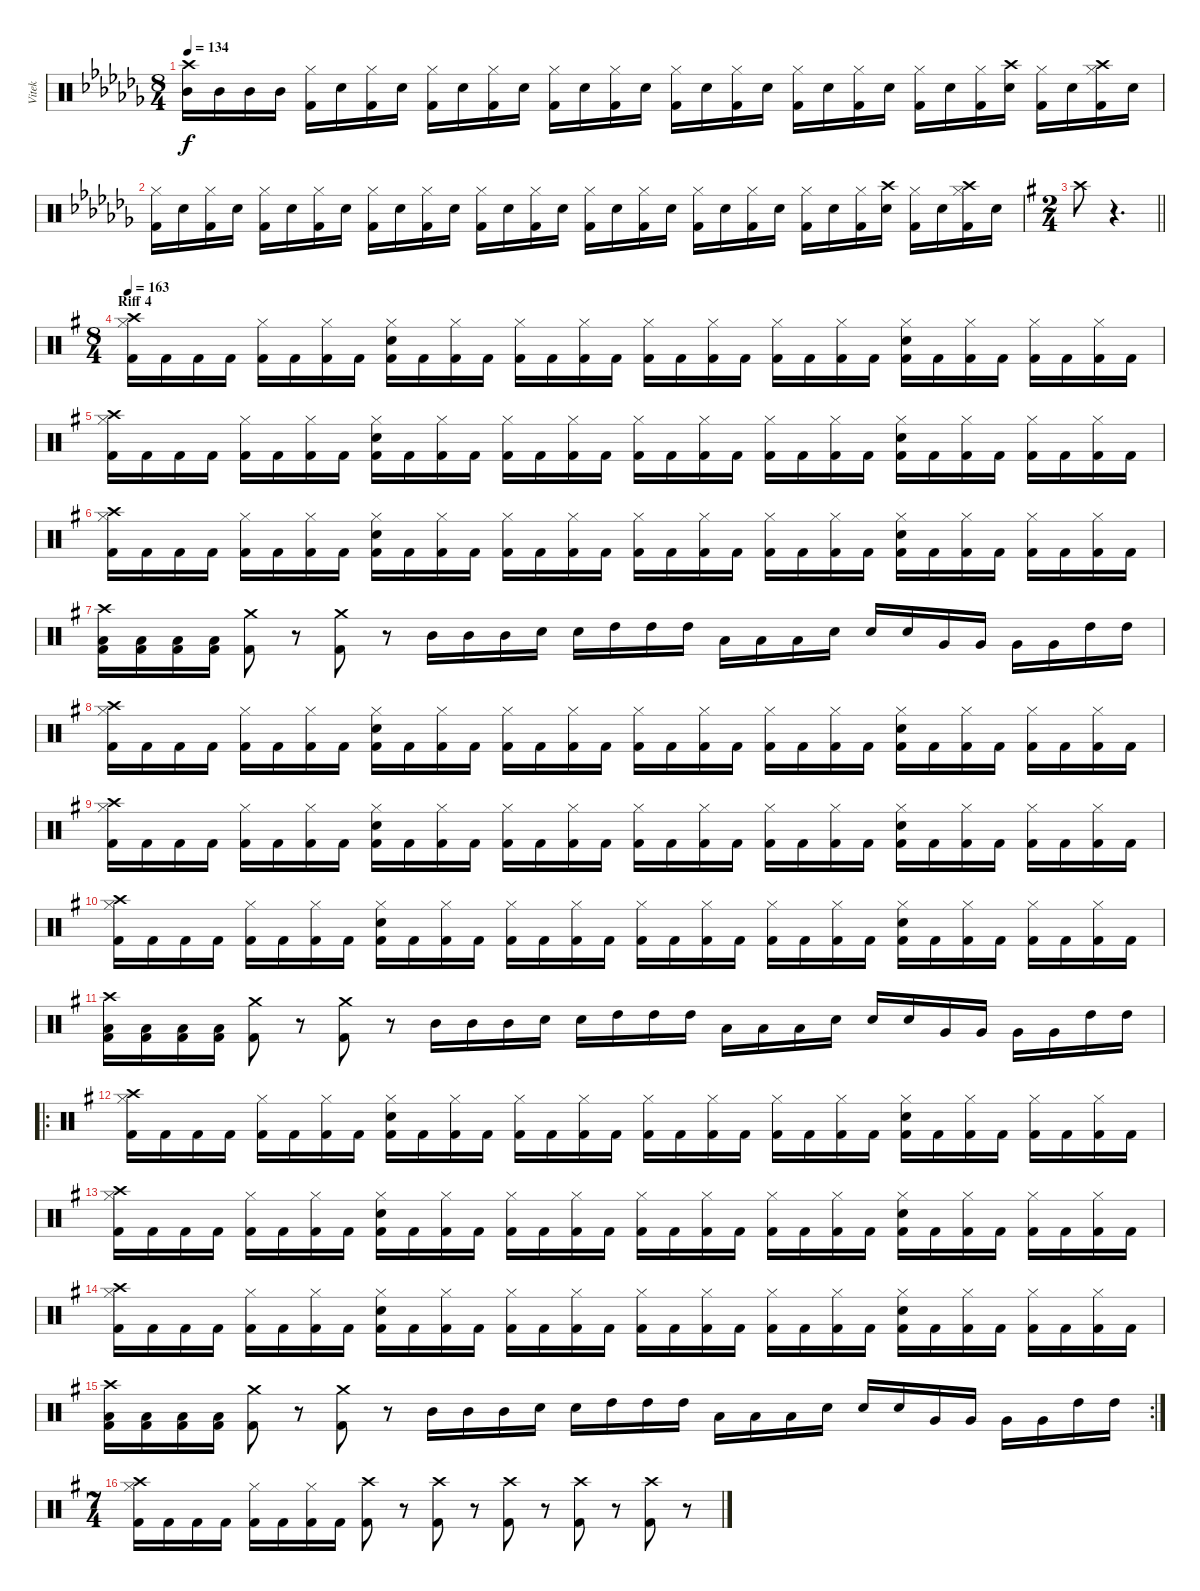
\track ("Vitek" "Vitek") {instrument percussion}
\staff
\articulation defaults
\ts (8 4)
\tempo 134
\clef neutral
\ks cb
("Mid Tom (hit)" "Crash high (hit)").16{dy f} "Mid Tom (hit)".16 "Mid Tom (hit)".16 "Mid Tom (hit)".16 ("Hi-Hat (closed)" "Kick (hit) 2").16 "Electric Snare (hit)".16 ("Hi-Hat (closed)" "Kick (hit) 2").16 "Electric Snare (hit)".16 ("Hi-Hat (closed)" "Kick (hit) 2").16 "Electric Snare (hit)".16 ("Hi-Hat (closed)" "Kick (hit) 2").16 "Electric Snare (hit)".16 ("Hi-Hat (closed)" "Kick (hit) 2").16 "Electric Snare (hit)".16 ("Hi-Hat (closed)" "Kick (hit) 2").16 "Electric Snare (hit)".16 ("Hi-Hat (closed)" "Kick (hit) 2").16 "Electric Snare (hit)".16 ("Hi-Hat (closed)" "Kick (hit) 2").16 "Electric Snare (hit)".16 ("Hi-Hat (closed)" "Kick (hit) 2").16 "Electric Snare (hit)".16 ("Hi-Hat (closed)" "Kick (hit) 2").16 "Electric Snare (hit)".16 ("Hi-Hat (closed)" "Kick (hit) 2").16 "Electric Snare (hit)".16 ("Hi-Hat (closed)" "Kick (hit) 2").16 ("Crash high (hit)" "Electric Snare (hit)").16 ("Hi-Hat (closed)" "Kick (hit) 2").16 "Electric Snare (hit)".16 ("Crash high (hit)" "Hi-Hat (closed)" "Kick (hit) 2").16 "Electric Snare (hit)".16 |
("Hi-Hat (closed)" "Kick (hit) 2").16 "Electric Snare (hit)".16 ("Hi-Hat (closed)" "Kick (hit) 2").16 "Electric Snare (hit)".16 ("Hi-Hat (closed)" "Kick (hit) 2").16 "Electric Snare (hit)".16 ("Hi-Hat (closed)" "Kick (hit) 2").16 "Electric Snare (hit)".16 ("Hi-Hat (closed)" "Kick (hit) 2").16 "Electric Snare (hit)".16 ("Hi-Hat (closed)" "Kick (hit) 2").16 "Electric Snare (hit)".16 ("Hi-Hat (closed)" "Kick (hit) 2").16 "Electric Snare (hit)".16 ("Hi-Hat (closed)" "Kick (hit) 2").16 "Electric Snare (hit)".16 ("Hi-Hat (closed)" "Kick (hit) 2").16 "Electric Snare (hit)".16 ("Hi-Hat (closed)" "Kick (hit) 2").16 "Electric Snare (hit)".16 ("Hi-Hat (closed)" "Kick (hit) 2").16 "Electric Snare (hit)".16 ("Hi-Hat (closed)" "Kick (hit) 2").16 "Electric Snare (hit)".16 ("Hi-Hat (closed)" "Kick (hit) 2").16 "Electric Snare (hit)".16 ("Hi-Hat (closed)" "Kick (hit) 2").16 ("Crash high (hit)" "Electric Snare (hit)").16 ("Hi-Hat (closed)" "Kick (hit) 2").16 "Electric Snare (hit)".16 ("Crash high (hit)" "Hi-Hat (closed)" "Kick (hit) 2").16 "Electric Snare (hit)".16 |
\ts (2 4)
\barLineRight lightlight
\ks g "Crash high (hit)".8
r.4{d} |
\ts (8 4)
\section ("" "Riff 4")
\tempo 163
("Crash high (hit)" "Hi-Hat (closed)" "Kick (hit) 2").16 "Kick (hit) 2".16 "Kick (hit) 2".16 "Kick (hit) 2".16 ("Hi-Hat (closed)" "Kick (hit) 2").16 "Kick (hit) 2".16 ("Hi-Hat (closed)" "Kick (hit) 2").16 "Kick (hit) 2".16 ("Electric Snare (hit)" "Hi-Hat (closed)" "Kick (hit) 2").16 "Kick (hit) 2".16 ("Hi-Hat (closed)" "Kick (hit) 2").16 "Kick (hit) 2".16 ("Hi-Hat (closed)" "Kick (hit) 2").16 "Kick (hit) 2".16 ("Hi-Hat (closed)" "Kick (hit) 2").16 "Kick (hit) 2".16 ("Hi-Hat (closed)" "Kick (hit) 2").16 "Kick (hit) 2".16 ("Hi-Hat (closed)" "Kick (hit) 2").16 "Kick (hit) 2".16 ("Hi-Hat (closed)" "Kick (hit) 2").16 "Kick (hit) 2".16 ("Hi-Hat (closed)" "Kick (hit) 2").16 "Kick (hit) 2".16 ("Electric Snare (hit)" "Hi-Hat (closed)" "Kick (hit) 2").16 "Kick (hit) 2".16 ("Hi-Hat (closed)" "Kick (hit) 2").16 "Kick (hit) 2".16 ("Hi-Hat (closed)" "Kick (hit) 2").16 "Kick (hit) 2".16 ("Hi-Hat (closed)" "Kick (hit) 2").16 "Kick (hit) 2".16 |
("Crash high (hit)" "Hi-Hat (closed)" "Kick (hit) 2").16 "Kick (hit) 2".16 "Kick (hit) 2".16 "Kick (hit) 2".16 ("Hi-Hat (closed)" "Kick (hit) 2").16 "Kick (hit) 2".16 ("Hi-Hat (closed)" "Kick (hit) 2").16 "Kick (hit) 2".16 ("Electric Snare (hit)" "Hi-Hat (closed)" "Kick (hit) 2").16 "Kick (hit) 2".16 ("Hi-Hat (closed)" "Kick (hit) 2").16 "Kick (hit) 2".16 ("Hi-Hat (closed)" "Kick (hit) 2").16 "Kick (hit) 2".16 ("Hi-Hat (closed)" "Kick (hit) 2").16 "Kick (hit) 2".16 ("Hi-Hat (closed)" "Kick (hit) 2").16 "Kick (hit) 2".16 ("Hi-Hat (closed)" "Kick (hit) 2").16 "Kick (hit) 2".16 ("Hi-Hat (closed)" "Kick (hit) 2").16 "Kick (hit) 2".16 ("Hi-Hat (closed)" "Kick (hit) 2").16 "Kick (hit) 2".16 ("Electric Snare (hit)" "Hi-Hat (closed)" "Kick (hit) 2").16 "Kick (hit) 2".16 ("Hi-Hat (closed)" "Kick (hit) 2").16 "Kick (hit) 2".16 ("Hi-Hat (closed)" "Kick (hit) 2").16 "Kick (hit) 2".16 ("Hi-Hat (closed)" "Kick (hit) 2").16 "Kick (hit) 2".16 |
("Crash high (hit)" "Hi-Hat (closed)" "Kick (hit) 2").16 "Kick (hit) 2".16 "Kick (hit) 2".16 "Kick (hit) 2".16 ("Hi-Hat (closed)" "Kick (hit) 2").16 "Kick (hit) 2".16 ("Hi-Hat (closed)" "Kick (hit) 2").16 "Kick (hit) 2".16 ("Electric Snare (hit)" "Hi-Hat (closed)" "Kick (hit) 2").16 "Kick (hit) 2".16 ("Hi-Hat (closed)" "Kick (hit) 2").16 "Kick (hit) 2".16 ("Hi-Hat (closed)" "Kick (hit) 2").16 "Kick (hit) 2".16 ("Hi-Hat (closed)" "Kick (hit) 2").16 "Kick (hit) 2".16 ("Hi-Hat (closed)" "Kick (hit) 2").16 "Kick (hit) 2".16 ("Hi-Hat (closed)" "Kick (hit) 2").16 "Kick (hit) 2".16 ("Hi-Hat (closed)" "Kick (hit) 2").16 "Kick (hit) 2".16 ("Hi-Hat (closed)" "Kick (hit) 2").16 "Kick (hit) 2".16 ("Electric Snare (hit)" "Hi-Hat (closed)" "Kick (hit) 2").16 "Kick (hit) 2".16 ("Hi-Hat (closed)" "Kick (hit) 2").16 "Kick (hit) 2".16 ("Hi-Hat (closed)" "Kick (hit) 2").16 "Kick (hit) 2".16 ("Hi-Hat (closed)" "Kick (hit) 2").16 "Kick (hit) 2".16 |
("Crash high (hit)" "Low Tom (hit)" "Kick (hit) 2").16 ("Low Tom (hit)" "Kick (hit) 2").16 ("Low Tom (hit)" "Kick (hit) 2").16 ("Low Tom (hit)" "Kick (hit) 2").16 ("Crash medium (hit)" "Kick (hit) 2").8 r.8 ("Crash medium (hit)" "Kick (hit) 2").8 r.8 "Mid Tom (hit)".16 "Mid Tom (hit)".16 "Mid Tom (hit)".16 "Electric Snare (hit)".16 "Electric Snare (hit)".16 "High Tom (hit)".16 "High Tom (hit)".16 "High Tom (hit)".16 "Low Tom (hit)".16 "Low Tom (hit)".16 "Low Tom (hit)".16 "Electric Snare (hit)".16 "Electric Snare (hit)".16 "Electric Snare (hit)".16 "Very Low Tom (hit)".16 "Very Low Tom (hit)".16 "Very Low Tom (hit)".16 "Very Low Tom (hit)".16 "High Tom (hit)".16 "High Tom (hit)".16 |
("Crash high (hit)" "Hi-Hat (closed)" "Kick (hit) 2").16 "Kick (hit) 2".16 "Kick (hit) 2".16 "Kick (hit) 2".16 ("Hi-Hat (closed)" "Kick (hit) 2").16 "Kick (hit) 2".16 ("Hi-Hat (closed)" "Kick (hit) 2").16 "Kick (hit) 2".16 ("Electric Snare (hit)" "Hi-Hat (closed)" "Kick (hit) 2").16 "Kick (hit) 2".16 ("Hi-Hat (closed)" "Kick (hit) 2").16 "Kick (hit) 2".16 ("Hi-Hat (closed)" "Kick (hit) 2").16 "Kick (hit) 2".16 ("Hi-Hat (closed)" "Kick (hit) 2").16 "Kick (hit) 2".16 ("Hi-Hat (closed)" "Kick (hit) 2").16 "Kick (hit) 2".16 ("Hi-Hat (closed)" "Kick (hit) 2").16 "Kick (hit) 2".16 ("Hi-Hat (closed)" "Kick (hit) 2").16 "Kick (hit) 2".16 ("Hi-Hat (closed)" "Kick (hit) 2").16 "Kick (hit) 2".16 ("Electric Snare (hit)" "Hi-Hat (closed)" "Kick (hit) 2").16 "Kick (hit) 2".16 ("Hi-Hat (closed)" "Kick (hit) 2").16 "Kick (hit) 2".16 ("Hi-Hat (closed)" "Kick (hit) 2").16 "Kick (hit) 2".16 ("Hi-Hat (closed)" "Kick (hit) 2").16 "Kick (hit) 2".16 |
("Crash high (hit)" "Hi-Hat (closed)" "Kick (hit) 2").16 "Kick (hit) 2".16 "Kick (hit) 2".16 "Kick (hit) 2".16 ("Hi-Hat (closed)" "Kick (hit) 2").16 "Kick (hit) 2".16 ("Hi-Hat (closed)" "Kick (hit) 2").16 "Kick (hit) 2".16 ("Electric Snare (hit)" "Hi-Hat (closed)" "Kick (hit) 2").16 "Kick (hit) 2".16 ("Hi-Hat (closed)" "Kick (hit) 2").16 "Kick (hit) 2".16 ("Hi-Hat (closed)" "Kick (hit) 2").16 "Kick (hit) 2".16 ("Hi-Hat (closed)" "Kick (hit) 2").16 "Kick (hit) 2".16 ("Hi-Hat (closed)" "Kick (hit) 2").16 "Kick (hit) 2".16 ("Hi-Hat (closed)" "Kick (hit) 2").16 "Kick (hit) 2".16 ("Hi-Hat (closed)" "Kick (hit) 2").16 "Kick (hit) 2".16 ("Hi-Hat (closed)" "Kick (hit) 2").16 "Kick (hit) 2".16 ("Electric Snare (hit)" "Hi-Hat (closed)" "Kick (hit) 2").16 "Kick (hit) 2".16 ("Hi-Hat (closed)" "Kick (hit) 2").16 "Kick (hit) 2".16 ("Hi-Hat (closed)" "Kick (hit) 2").16 "Kick (hit) 2".16 ("Hi-Hat (closed)" "Kick (hit) 2").16 "Kick (hit) 2".16 |
("Crash high (hit)" "Hi-Hat (closed)" "Kick (hit) 2").16 "Kick (hit) 2".16 "Kick (hit) 2".16 "Kick (hit) 2".16 ("Hi-Hat (closed)" "Kick (hit) 2").16 "Kick (hit) 2".16 ("Hi-Hat (closed)" "Kick (hit) 2").16 "Kick (hit) 2".16 ("Electric Snare (hit)" "Hi-Hat (closed)" "Kick (hit) 2").16 "Kick (hit) 2".16 ("Hi-Hat (closed)" "Kick (hit) 2").16 "Kick (hit) 2".16 ("Hi-Hat (closed)" "Kick (hit) 2").16 "Kick (hit) 2".16 ("Hi-Hat (closed)" "Kick (hit) 2").16 "Kick (hit) 2".16 ("Hi-Hat (closed)" "Kick (hit) 2").16 "Kick (hit) 2".16 ("Hi-Hat (closed)" "Kick (hit) 2").16 "Kick (hit) 2".16 ("Hi-Hat (closed)" "Kick (hit) 2").16 "Kick (hit) 2".16 ("Hi-Hat (closed)" "Kick (hit) 2").16 "Kick (hit) 2".16 ("Electric Snare (hit)" "Hi-Hat (closed)" "Kick (hit) 2").16 "Kick (hit) 2".16 ("Hi-Hat (closed)" "Kick (hit) 2").16 "Kick (hit) 2".16 ("Hi-Hat (closed)" "Kick (hit) 2").16 "Kick (hit) 2".16 ("Hi-Hat (closed)" "Kick (hit) 2").16 "Kick (hit) 2".16 |
("Crash high (hit)" "Low Tom (hit)" "Kick (hit) 2").16 ("Low Tom (hit)" "Kick (hit) 2").16 ("Low Tom (hit)" "Kick (hit) 2").16 ("Low Tom (hit)" "Kick (hit) 2").16 ("Crash medium (hit)" "Kick (hit) 2").8 r.8 ("Crash medium (hit)" "Kick (hit) 2").8 r.8 "Mid Tom (hit)".16 "Mid Tom (hit)".16 "Mid Tom (hit)".16 "Electric Snare (hit)".16 "Electric Snare (hit)".16 "High Tom (hit)".16 "High Tom (hit)".16 "High Tom (hit)".16 "Low Tom (hit)".16 "Low Tom (hit)".16 "Low Tom (hit)".16 "Electric Snare (hit)".16 "Electric Snare (hit)".16 "Electric Snare (hit)".16 "Very Low Tom (hit)".16 "Very Low Tom (hit)".16 "Very Low Tom (hit)".16 "Very Low Tom (hit)".16 "High Tom (hit)".16 "High Tom (hit)".16 |
\ro
("Crash high (hit)" "Hi-Hat (closed)" "Kick (hit) 2").16 "Kick (hit) 2".16 "Kick (hit) 2".16 "Kick (hit) 2".16 ("Hi-Hat (closed)" "Kick (hit) 2").16 "Kick (hit) 2".16 ("Hi-Hat (closed)" "Kick (hit) 2").16 "Kick (hit) 2".16 ("Electric Snare (hit)" "Hi-Hat (closed)" "Kick (hit) 2").16 "Kick (hit) 2".16 ("Hi-Hat (closed)" "Kick (hit) 2").16 "Kick (hit) 2".16 ("Hi-Hat (closed)" "Kick (hit) 2").16 "Kick (hit) 2".16 ("Hi-Hat (closed)" "Kick (hit) 2").16 "Kick (hit) 2".16 ("Hi-Hat (closed)" "Kick (hit) 2").16 "Kick (hit) 2".16 ("Hi-Hat (closed)" "Kick (hit) 2").16 "Kick (hit) 2".16 ("Hi-Hat (closed)" "Kick (hit) 2").16 "Kick (hit) 2".16 ("Hi-Hat (closed)" "Kick (hit) 2").16 "Kick (hit) 2".16 ("Electric Snare (hit)" "Hi-Hat (closed)" "Kick (hit) 2").16 "Kick (hit) 2".16 ("Hi-Hat (closed)" "Kick (hit) 2").16 "Kick (hit) 2".16 ("Hi-Hat (closed)" "Kick (hit) 2").16 "Kick (hit) 2".16 ("Hi-Hat (closed)" "Kick (hit) 2").16 "Kick (hit) 2".16 |
("Crash high (hit)" "Hi-Hat (closed)" "Kick (hit) 2").16 "Kick (hit) 2".16 "Kick (hit) 2".16 "Kick (hit) 2".16 ("Hi-Hat (closed)" "Kick (hit) 2").16 "Kick (hit) 2".16 ("Hi-Hat (closed)" "Kick (hit) 2").16 "Kick (hit) 2".16 ("Electric Snare (hit)" "Hi-Hat (closed)" "Kick (hit) 2").16 "Kick (hit) 2".16 ("Hi-Hat (closed)" "Kick (hit) 2").16 "Kick (hit) 2".16 ("Hi-Hat (closed)" "Kick (hit) 2").16 "Kick (hit) 2".16 ("Hi-Hat (closed)" "Kick (hit) 2").16 "Kick (hit) 2".16 ("Hi-Hat (closed)" "Kick (hit) 2").16 "Kick (hit) 2".16 ("Hi-Hat (closed)" "Kick (hit) 2").16 "Kick (hit) 2".16 ("Hi-Hat (closed)" "Kick (hit) 2").16 "Kick (hit) 2".16 ("Hi-Hat (closed)" "Kick (hit) 2").16 "Kick (hit) 2".16 ("Electric Snare (hit)" "Hi-Hat (closed)" "Kick (hit) 2").16 "Kick (hit) 2".16 ("Hi-Hat (closed)" "Kick (hit) 2").16 "Kick (hit) 2".16 ("Hi-Hat (closed)" "Kick (hit) 2").16 "Kick (hit) 2".16 ("Hi-Hat (closed)" "Kick (hit) 2").16 "Kick (hit) 2".16 |
("Crash high (hit)" "Hi-Hat (closed)" "Kick (hit) 2").16 "Kick (hit) 2".16 "Kick (hit) 2".16 "Kick (hit) 2".16 ("Hi-Hat (closed)" "Kick (hit) 2").16 "Kick (hit) 2".16 ("Hi-Hat (closed)" "Kick (hit) 2").16 "Kick (hit) 2".16 ("Electric Snare (hit)" "Hi-Hat (closed)" "Kick (hit) 2").16 "Kick (hit) 2".16 ("Hi-Hat (closed)" "Kick (hit) 2").16 "Kick (hit) 2".16 ("Hi-Hat (closed)" "Kick (hit) 2").16 "Kick (hit) 2".16 ("Hi-Hat (closed)" "Kick (hit) 2").16 "Kick (hit) 2".16 ("Hi-Hat (closed)" "Kick (hit) 2").16 "Kick (hit) 2".16 ("Hi-Hat (closed)" "Kick (hit) 2").16 "Kick (hit) 2".16 ("Hi-Hat (closed)" "Kick (hit) 2").16 "Kick (hit) 2".16 ("Hi-Hat (closed)" "Kick (hit) 2").16 "Kick (hit) 2".16 ("Electric Snare (hit)" "Hi-Hat (closed)" "Kick (hit) 2").16 "Kick (hit) 2".16 ("Hi-Hat (closed)" "Kick (hit) 2").16 "Kick (hit) 2".16 ("Hi-Hat (closed)" "Kick (hit) 2").16 "Kick (hit) 2".16 ("Hi-Hat (closed)" "Kick (hit) 2").16 "Kick (hit) 2".16 |
\rc 2
("Crash high (hit)" "Low Tom (hit)" "Kick (hit) 2").16 ("Low Tom (hit)" "Kick (hit) 2").16 ("Low Tom (hit)" "Kick (hit) 2").16 ("Low Tom (hit)" "Kick (hit) 2").16 ("Crash medium (hit)" "Kick (hit) 2").8 r.8 ("Crash medium (hit)" "Kick (hit) 2").8 r.8 "Mid Tom (hit)".16 "Mid Tom (hit)".16 "Mid Tom (hit)".16 "Electric Snare (hit)".16 "Electric Snare (hit)".16 "High Tom (hit)".16 "High Tom (hit)".16 "High Tom (hit)".16 "Low Tom (hit)".16 "Low Tom (hit)".16 "Low Tom (hit)".16 "Electric Snare (hit)".16 "Electric Snare (hit)".16 "Electric Snare (hit)".16 "Very Low Tom (hit)".16 "Very Low Tom (hit)".16 "Very Low Tom (hit)".16 "Very Low Tom (hit)".16 "High Tom (hit)".16 "High Tom (hit)".16 |
\ts (7 4)
("Crash high (hit)" "Hi-Hat (closed)" "Kick (hit) 2").16 "Kick (hit) 2".16 "Kick (hit) 2".16 "Kick (hit) 2".16 ("Hi-Hat (closed)" "Kick (hit) 2").16 "Kick (hit) 2".16 ("Hi-Hat (closed)" "Kick (hit) 2").16 "Kick (hit) 2".16 ("Crash high (hit)" "Kick (hit) 2").8 r.8 ("Crash high (hit)" "Kick (hit) 2").8 r.8 ("Crash high (hit)" "Kick (hit) 2").8 r.8 ("Crash high (hit)" "Kick (hit) 2").8 r.8 ("Crash high (hit)" "Kick (hit) 2").8 r.8
